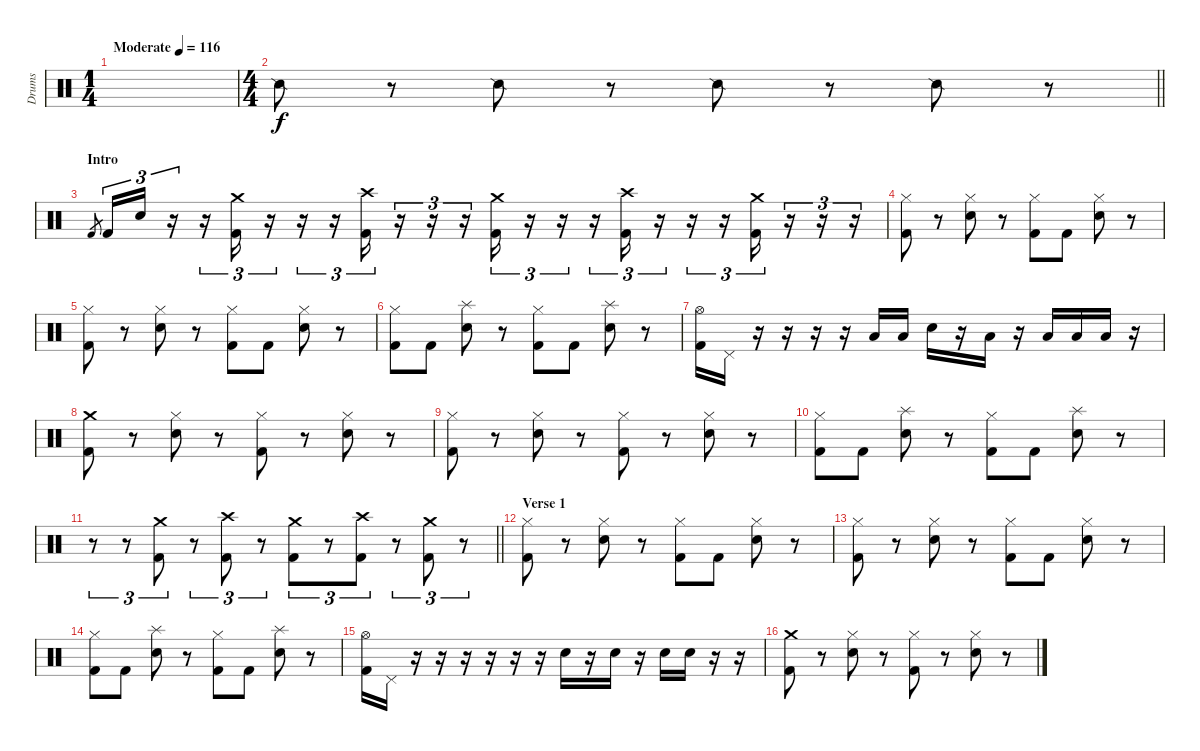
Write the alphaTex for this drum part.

\track ("Drums" "Drums") {instrument percussion}
\staff {score}
\articulation defaults
\ts (1 4)
\tempo (116 "Moderate")
\clef neutral
\ks c
|
\ts (4 4)
\barLineRight lightlight "Snare (side stick) 2".8
r.8 "Snare (side stick) 2".8 r.8 "Snare (side stick) 2".8 r.8 "Snare (side stick) 2".8 r.8 |
\section ("" "Intro")
"Kick (hit) 2".8{gr} "Kick (hit) 2".16{tu (3 2)} "Snare (hit) 2".16{tu (3 2)} r.16{tu (3 2)} r.16{tu (3 2)} ("Crash medium (hit)" "Kick (hit) 2").16{tu (3 2)} r.16{tu (3 2)} r.16{tu (3 2)} r.16{tu (3 2)} ("Crash high (hit)" "Kick (hit) 2").16{tu (3 2)} r.16{tu (3 2)} r.16{tu (3 2)} r.16{tu (3 2)} ("Crash medium (hit)" "Kick (hit) 2").16{tu (3 2)} r.16{tu (3 2)} r.16{tu (3 2)} r.16{tu (3 2)} ("Crash high (hit)" "Kick (hit) 2").16{tu (3 2)} r.16{tu (3 2)} r.16{tu (3 2)} r.16{tu (3 2)} ("Crash medium (hit)" "Kick (hit) 2").16{tu (3 2)} r.16{tu (3 2)} r.16{tu (3 2)} r.16{tu (3 2)} |
("Hi-Hat (closed)" "Kick (hit) 2").8 r.8 ("Hi-Hat (closed)" "Snare (hit) 2").8 r.8 ("Hi-Hat (closed)" "Kick (hit) 2").8 "Kick (hit) 2".8 ("Hi-Hat (closed)" "Snare (hit) 2").8 r.8 |
("Hi-Hat (closed)" "Kick (hit) 2").8 r.8 ("Hi-Hat (closed)" "Snare (hit) 2").8 r.8 ("Hi-Hat (closed)" "Kick (hit) 2").8 "Kick (hit) 2".8 ("Hi-Hat (closed)" "Snare (hit) 2").8 r.8 |
("Hi-Hat (closed)" "Kick (hit) 2").8 "Kick (hit) 2".8 ("Splash (hit)" "Snare (hit) 2").8 r.8 ("Hi-Hat (closed)" "Kick (hit) 2").8 "Kick (hit) 2".8 ("Splash (hit)" "Snare (hit) 2").8 r.8 |
("Hi-Hat (open)" "Kick (hit) 2").16 "Pedal Hi-Hat (hit)".16 r.16 r.16 r.16 r.16 "Low Tom (hit)".16 "Low Tom (hit)".16 "Snare (hit) 2".16 r.16 "Low Tom (hit)".16 r.16 "Low Floor Tom (hit)".16 "Low Floor Tom (hit)".16 "Low Floor Tom (hit)".16 r.16 |
("Crash medium (hit)" "Kick (hit) 2").8 r.8 ("Hi-Hat (closed)" "Snare (hit) 2").8 r.8 ("Hi-Hat (closed)" "Kick (hit) 2").8 r.8 ("Hi-Hat (closed)" "Snare (hit) 2").8 r.8 |
("Hi-Hat (closed)" "Kick (hit) 2").8 r.8 ("Hi-Hat (closed)" "Snare (hit) 2").8 r.8 ("Hi-Hat (closed)" "Kick (hit) 2").8 r.8 ("Hi-Hat (closed)" "Snare (hit) 2").8 r.8 |
("Hi-Hat (closed)" "Kick (hit) 2").8 "Kick (hit) 2".8 ("Splash (hit)" "Snare (hit) 2").8 r.8 ("Hi-Hat (closed)" "Kick (hit) 2").8 "Kick (hit) 2".8 ("Splash (hit)" "Snare (hit) 2").8 r.8 |
\barLineRight lightlight
r.8{tu (3 2)} r.8{tu (3 2)} ("Crash medium (hit)" "Kick (hit) 2").8{tu (3 2)} r.8{tu (3 2)} ("Crash high (hit)" "Kick (hit) 2").8{tu (3 2)} r.8{tu (3 2)} ("Crash medium (hit)" "Kick (hit) 2").8{tu (3 2)} r.8{tu (3 2)} ("Crash high (hit)" "Kick (hit) 2").8{tu (3 2)} r.8{tu (3 2)} ("Crash medium (hit)" "Kick (hit) 2").8{tu (3 2)} r.8{tu (3 2)} |
\section ("" "Verse 1")
("Hi-Hat (closed)" "Kick (hit) 2").8 r.8 ("Hi-Hat (closed)" "Snare (hit) 2").8 r.8 ("Hi-Hat (closed)" "Kick (hit) 2").8 "Kick (hit) 2".8 ("Hi-Hat (closed)" "Snare (hit) 2").8 r.8 |
("Hi-Hat (closed)" "Kick (hit) 2").8 r.8 ("Hi-Hat (closed)" "Snare (hit) 2").8 r.8 ("Hi-Hat (closed)" "Kick (hit) 2").8 "Kick (hit) 2".8 ("Hi-Hat (closed)" "Snare (hit) 2").8 r.8 |
("Hi-Hat (closed)" "Kick (hit) 2").8 "Kick (hit) 2".8 ("Splash (hit)" "Snare (hit) 2").8 r.8 ("Hi-Hat (closed)" "Kick (hit) 2").8 "Kick (hit) 2".8 ("Splash (hit)" "Snare (hit) 2").8 r.8 |
("Hi-Hat (open)" "Kick (hit) 2").16 "Pedal Hi-Hat (hit)".16 r.16 r.16 r.16 r.16 r.16 r.16 "Snare (hit) 2".16 r.16 "Snare (hit) 2".16 r.16 "Snare (hit) 2".16 "Snare (hit) 2".16 r.16 r.16 |
("Crash medium (hit)" "Kick (hit) 2").8 r.8 ("Hi-Hat (closed)" "Snare (hit) 2").8 r.8 ("Hi-Hat (closed)" "Kick (hit) 2").8 r.8 ("Hi-Hat (closed)" "Snare (hit) 2").8 r.8
